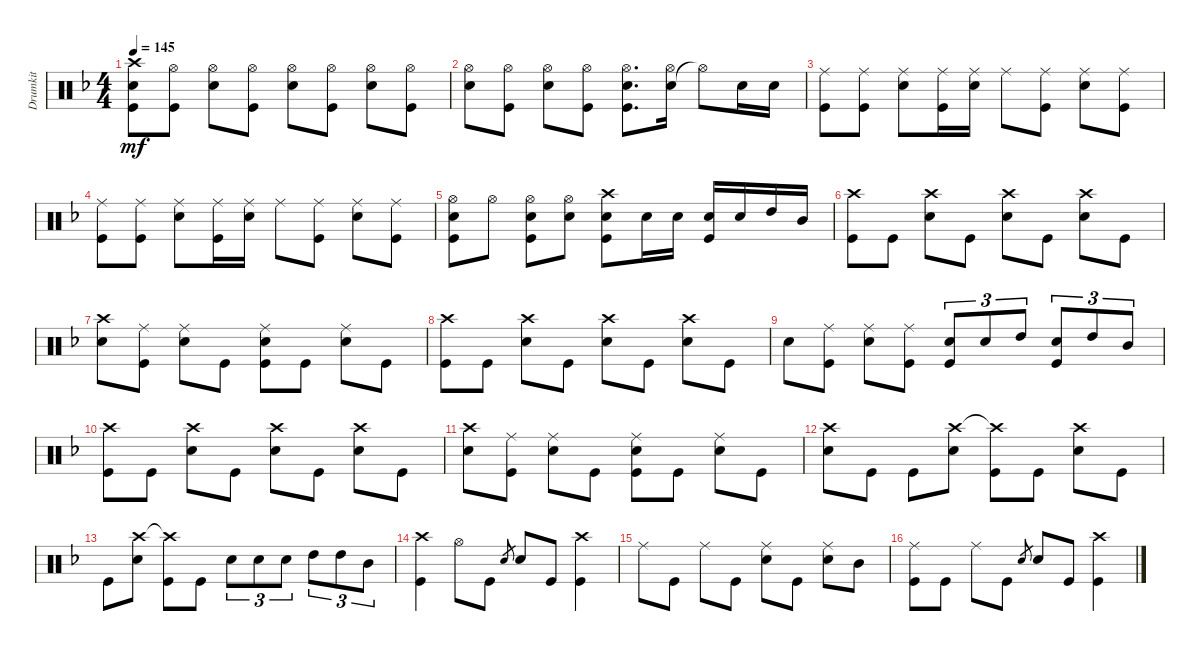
\track ("Drumkit" "Drumkit") {instrument percussion}
\staff {score}
\articulation defaults
\ts (4 4)
\tempo 145
\clef neutral
\ks f
("Crash high (hit)" "Snare (hit) 2" "Kick (hit)").8{dy mf} ("Kick (hit)" "Hi-Hat (open)").8 ("Hi-Hat (open)" "Snare (hit) 2").8 ("Hi-Hat (open)" "Kick (hit)").8 ("Snare (hit) 2" "Hi-Hat (open)").8 ("Kick (hit)" "Hi-Hat (open)").8 ("Hi-Hat (open)" "Snare (hit) 2").8 ("Hi-Hat (open)" "Kick (hit)").8 |
("Snare (hit) 2" "Hi-Hat (open)").8 ("Kick (hit)" "Hi-Hat (open)").8 ("Hi-Hat (open)" "Snare (hit) 2").8 ("Hi-Hat (open)" "Kick (hit)").8 ("Hi-Hat (open)" "Snare (hit) 2" "Kick (hit)").8{d} ("Snare (hit) 2" "Hi-Hat (open)").16 "Hi-Hat (open)"{t}.8 "Snare (hit) 2".16 "Snare (hit) 2".16 |
("Kick (hit)" "Ride (middle)").8 ("Kick (hit)" "Ride (middle)").8 ("Snare (hit) 2" "Ride (middle)").8 ("Kick (hit)" "Ride (middle)").16 ("Snare (hit) 2" "Ride (middle)").16 "Ride (middle)".8 ("Kick (hit)" "Ride (middle)").8 ("Snare (hit) 2" "Ride (middle)").8 ("Kick (hit)" "Ride (middle)").8 |
("Kick (hit)" "Ride (middle)").8 ("Kick (hit)" "Ride (middle)").8 ("Snare (hit) 2" "Ride (middle)").8 ("Kick (hit)" "Ride (middle)").16 ("Snare (hit) 2" "Ride (middle)").16 "Ride (middle)".8 ("Kick (hit)" "Ride (middle)").8 ("Snare (hit) 2" "Ride (middle)").8 ("Kick (hit)" "Ride (middle)").8 |
("Kick (hit)" "Snare (hit) 2" "Hi-Hat (open)").8 "Hi-Hat (open)".8 ("Hi-Hat (open)" "Snare (hit) 2" "Kick (hit)").8 ("Hi-Hat (open)" "Snare (hit) 2").8 ("Kick (hit)" "Snare (hit) 2" "Crash high (hit)").8 "Snare (hit) 2".16 "Snare (hit) 2".16 ("Snare (hit) 2" "Kick (hit)").16 "Snare (hit) 2".16 "High Tom (hit)".16 "Mid Tom (hit)".16 |
("Kick (hit)" "Crash high (hit)").8 "Kick (hit)".8 ("Snare (hit) 2" "Crash high (hit)").8 "Kick (hit)".8 ("Snare (hit) 2" "Crash high (hit)").8 "Kick (hit)".8 ("Snare (hit) 2" "Crash high (hit)").8 "Kick (hit)".8 |
("Crash high (hit)" "Snare (hit) 2").8 ("Ride (middle)" "Kick (hit)").8 ("Snare (hit) 2" "Ride (middle)").8 "Kick (hit)".8 ("Kick (hit)" "Snare (hit) 2" "Ride (middle)").8 "Kick (hit)".8 ("Ride (middle)" "Snare (hit) 2").8 "Kick (hit)".8 |
("Kick (hit)" "Crash high (hit)").8 "Kick (hit)".8 ("Snare (hit) 2" "Crash high (hit)").8 "Kick (hit)".8 ("Snare (hit) 2" "Crash high (hit)").8 "Kick (hit)".8 ("Snare (hit) 2" "Crash high (hit)").8 "Kick (hit)".8 |
"Snare (hit) 2".8 ("Ride (middle)" "Kick (hit)").8 ("Snare (hit) 2" "Ride (middle)").8 ("Kick (hit)" "Ride (middle)").8 ("Snare (hit) 2" "Kick (hit)").8{tu (3 2)} "Snare (hit) 2".8{tu (3 2)} "High Tom (hit)".8{tu (3 2)} ("Snare (hit) 2" "Kick (hit)").8{tu (3 2)} "High Tom (hit)".8{tu (3 2)} "Mid Tom (hit)".8{tu (3 2)} |
("Kick (hit)" "Crash high (hit)").8 "Kick (hit)".8 ("Snare (hit) 2" "Crash high (hit)").8 "Kick (hit)".8 ("Snare (hit) 2" "Crash high (hit)").8 "Kick (hit)".8 ("Snare (hit) 2" "Crash high (hit)").8 "Kick (hit)".8 |
("Crash high (hit)" "Snare (hit) 2").8 ("Ride (middle)" "Kick (hit)").8 ("Snare (hit) 2" "Ride (middle)").8 "Kick (hit)".8 ("Kick (hit)" "Snare (hit) 2" "Ride (middle)").8 "Kick (hit)".8 ("Ride (middle)" "Snare (hit) 2").8 "Kick (hit)".8 |
("Snare (hit) 2" "Crash high (hit)").8 "Kick (hit)".8 "Kick (hit)".8 ("Snare (hit) 2" "Crash high (hit)").8 ("Kick (hit)" "Crash high (hit)"{t}).8 "Kick (hit)".8 ("Snare (hit) 2" "Crash high (hit)").8 "Kick (hit)".8 |
"Kick (hit)".8 ("Crash high (hit)" "Snare (hit) 2").8 ("Crash high (hit)"{t} "Kick (hit)").8 "Kick (hit)".8 "Snare (hit) 2".8{tu (3 2)} "Snare (hit) 2".8{tu (3 2)} "Snare (hit) 2".8{tu (3 2)} "High Tom (hit)".8{tu (3 2)} "High Tom (hit)".8{tu (3 2)} "Mid Tom (hit)".8{tu (3 2)} |
("Kick (hit)" "Crash high (hit)").4 "Hi-Hat (open)".8 "Kick (hit)".8 "Snare (hit)".8{gr} "Snare (hit) 2".8 "Kick (hit)".8 ("Kick (hit)" "Crash high (hit)").4 |
"Ride (middle)".8 "Kick (hit)".8 "Ride (middle)".8 "Kick (hit)".8 ("Snare (hit) 2" "Ride (middle)").8 "Kick (hit)".8 ("Snare (hit) 2" "Ride (middle)").8 "Mid Tom (hit)".8 |
("Kick (hit)" "Ride (middle)").8 "Kick (hit)".8 "Ride (middle)".8 "Kick (hit)".8 "Snare (hit)".8{gr} "Snare (hit) 2".8 "Kick (hit)".8 ("Kick (hit)" "Crash high (hit)").4
